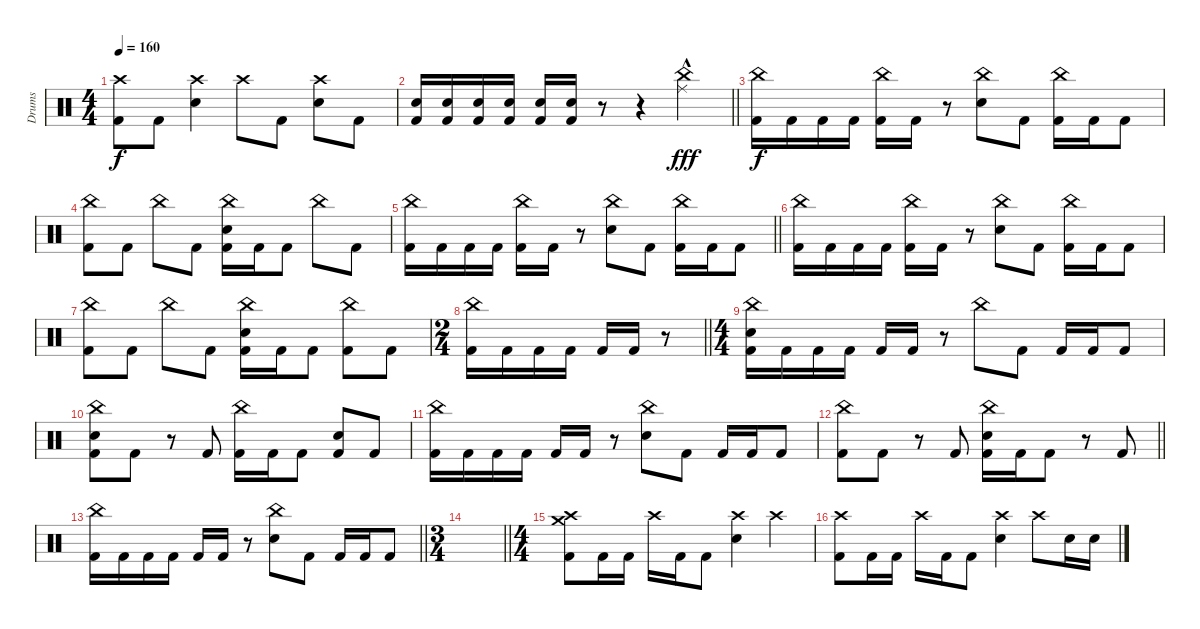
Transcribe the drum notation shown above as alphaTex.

\track ("Drums" "Drums") {instrument percussion}
\staff {score}
\articulation defaults
\ts (4 4)
\tempo 160
\clef neutral
\ks c
("Crash high (hit)" "Kick (hit) 2").8{dy f} "Kick (hit) 2".8 ("Crash high (hit)" "Electric Snare (hit)").4 "Crash high (hit)".8 "Kick (hit) 2".8 ("Crash high (hit)" "Electric Snare (hit)").8 "Kick (hit) 2".8 |
\barLineRight lightlight
("Electric Snare (hit)" "Kick (hit) 2").16 ("Electric Snare (hit)" "Kick (hit) 2").16 ("Electric Snare (hit)" "Kick (hit) 2").16 ("Electric Snare (hit)" "Kick (hit) 2").16 ("Electric Snare (hit)" "Kick (hit) 2").16 ("Electric Snare (hit)" "Kick (hit) 2").16 r.8 r.4 ("China (hit)" "Ride (middle)"{hac}).4{dy fff} |
("China (hit)" "Kick (hit) 2").16{dy f} "Kick (hit) 2".16 "Kick (hit) 2".16 "Kick (hit) 2".16 ("China (hit)" "Kick (hit) 2").16 "Kick (hit) 2".16 r.8 ("China (hit)" "Electric Snare (hit)").8 "Kick (hit) 2".8 ("China (hit)" "Kick (hit) 2").16 "Kick (hit) 2".16 "Kick (hit) 2".8 |
("China (hit)" "Kick (hit) 2").8 "Kick (hit) 2".8 "China (hit)".8 "Kick (hit) 2".8 ("China (hit)" "Electric Snare (hit)" "Kick (hit) 2").16 "Kick (hit) 2".16 "Kick (hit) 2".8 "China (hit)".8 "Kick (hit) 2".8 |
\barLineRight lightlight
("China (hit)" "Kick (hit) 2").16 "Kick (hit) 2".16 "Kick (hit) 2".16 "Kick (hit) 2".16 ("China (hit)" "Kick (hit) 2").16 "Kick (hit) 2".16 r.8 ("China (hit)" "Electric Snare (hit)").8 "Kick (hit) 2".8 ("China (hit)" "Kick (hit) 2").16 "Kick (hit) 2".16 "Kick (hit) 2".8 |
("China (hit)" "Kick (hit) 2").16 "Kick (hit) 2".16 "Kick (hit) 2".16 "Kick (hit) 2".16 ("China (hit)" "Kick (hit) 2").16 "Kick (hit) 2".16 r.8 ("China (hit)" "Electric Snare (hit)").8 "Kick (hit) 2".8 ("China (hit)" "Kick (hit) 2").16 "Kick (hit) 2".16 "Kick (hit) 2".8 |
("China (hit)" "Kick (hit) 2").8 "Kick (hit) 2".8 "China (hit)".8 "Kick (hit) 2".8 ("China (hit)" "Electric Snare (hit)" "Kick (hit) 2").16 "Kick (hit) 2".16 "Kick (hit) 2".8 ("China (hit)" "Kick (hit) 2").8 "Kick (hit) 2".8 |
\ts (2 4)
\barLineRight lightlight
("China (hit)" "Kick (hit) 2").16 "Kick (hit) 2".16 "Kick (hit) 2".16 "Kick (hit) 2".16 "Kick (hit) 2".16 "Kick (hit) 2".16 r.8 |
\ts (4 4)
("China (hit)" "Electric Snare (hit)" "Kick (hit) 2").16 "Kick (hit) 2".16 "Kick (hit) 2".16 "Kick (hit) 2".16 "Kick (hit) 2".16 "Kick (hit) 2".16 r.8 "China (hit)".8 "Kick (hit) 2".8 "Kick (hit) 2".16 "Kick (hit) 2".16 "Kick (hit) 2".8 |
("China (hit)" "Electric Snare (hit)" "Kick (hit) 2").8 "Kick (hit) 2".8 r.8 "Kick (hit) 2".8 ("China (hit)" "Kick (hit) 2").16 "Kick (hit) 2".16 "Kick (hit) 2".8 ("Electric Snare (hit)" "Kick (hit) 2").8 "Kick (hit) 2".8 |
("China (hit)" "Kick (hit) 2").16 "Kick (hit) 2".16 "Kick (hit) 2".16 "Kick (hit) 2".16 "Kick (hit) 2".16 "Kick (hit) 2".16 r.8 ("China (hit)" "Electric Snare (hit)").8 "Kick (hit) 2".8 "Kick (hit) 2".16 "Kick (hit) 2".16 "Kick (hit) 2".8 |
\barLineRight lightlight
("China (hit)" "Kick (hit) 2").8 "Kick (hit) 2".8 r.8 "Kick (hit) 2".8 ("China (hit)" "Electric Snare (hit)" "Kick (hit) 2").16 "Kick (hit) 2".16 "Kick (hit) 2".8 r.8 "Kick (hit) 2".8 |
\barLineRight lightlight
("China (hit)" "Kick (hit) 2").16 "Kick (hit) 2".16 "Kick (hit) 2".16 "Kick (hit) 2".16 "Kick (hit) 2".16 "Kick (hit) 2".16 r.8 ("China (hit)" "Electric Snare (hit)").8 "Kick (hit) 2".8 "Kick (hit) 2".16 "Kick (hit) 2".16 "Kick (hit) 2".8 |
\ts (3 4)
\barLineRight lightlight
|
\ts (4 4)
("Crash high (hit)" "Crash medium (hit)" "Kick (hit) 2").8 "Kick (hit) 2".16 "Kick (hit) 2".16 "Crash high (hit)".16 "Kick (hit) 2".16 "Kick (hit) 2".8 ("Crash high (hit)" "Electric Snare (hit)").4 "Crash high (hit)".4 |
("Crash high (hit)" "Kick (hit) 2").8 "Kick (hit) 2".16 "Kick (hit) 2".16 "Crash high (hit)".16 "Kick (hit) 2".16 "Kick (hit) 2".8 ("Crash high (hit)" "Electric Snare (hit)").4 "Crash high (hit)".8 "Electric Snare (hit)".16 "Electric Snare (hit)".16
